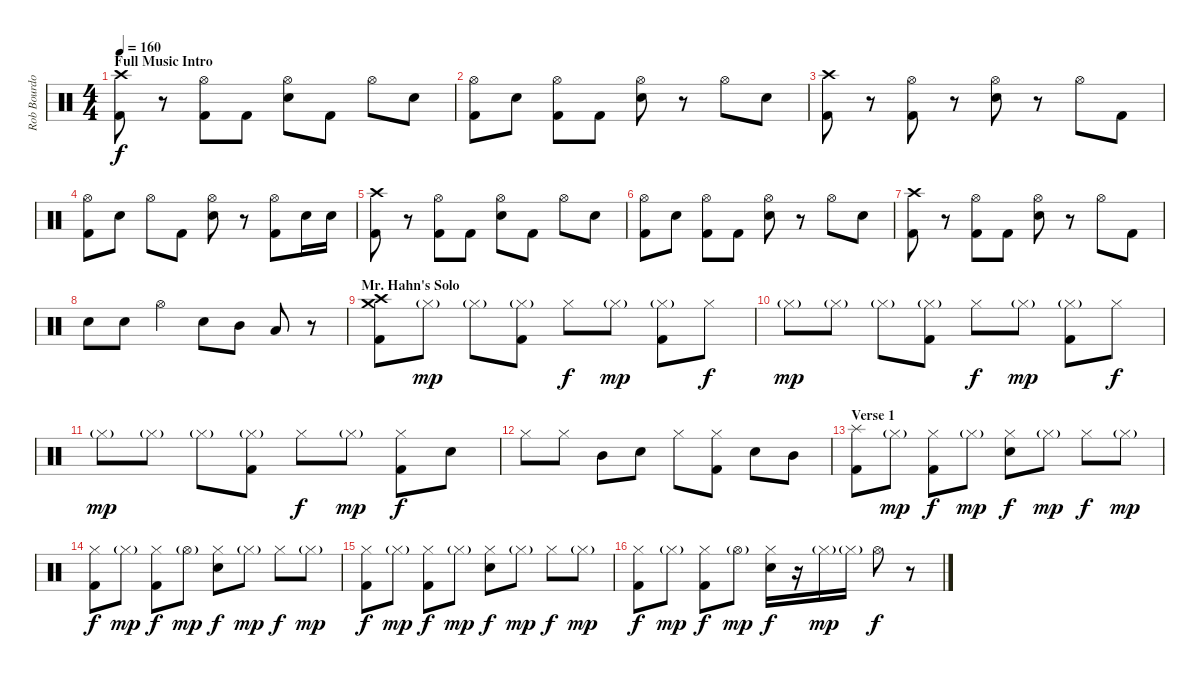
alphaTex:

\track ("Rob Bourdon (Drums)" "Rob Bourdo") {instrument percussion}
\staff {score}
\articulation defaults
\ts (4 4)
\section ("" "Full Music Intro")
\tempo 160
\clef neutral
\ks c
("Crash high (hit)" "Kick (hit) 2").8{dy f} r.8 ("Hi-Hat (open)" "Kick (hit) 2").8 "Kick (hit) 2".8 ("Hi-Hat (open)" "Electric Snare (hit)").8 "Kick (hit) 2".8 "Hi-Hat (open)".8 "Electric Snare (hit)".8 |
("Hi-Hat (open)" "Kick (hit) 2").8 "Electric Snare (hit)".8 ("Hi-Hat (open)" "Kick (hit) 2").8 "Kick (hit) 2".8 ("Hi-Hat (open)" "Electric Snare (hit)").8 r.8 "Hi-Hat (open)".8 "Electric Snare (hit)".8 |
("Crash high (hit)" "Kick (hit) 2").8 r.8 ("Hi-Hat (open)" "Kick (hit) 2").8 r.8 ("Hi-Hat (open)" "Electric Snare (hit)").8 r.8 "Hi-Hat (open)".8 "Kick (hit) 2".8 |
("Hi-Hat (open)" "Kick (hit) 2").8 "Electric Snare (hit)".8 "Hi-Hat (open)".8 "Kick (hit) 2".8 ("Hi-Hat (open)" "Electric Snare (hit)").8 r.8 ("Hi-Hat (open)" "Kick (hit) 2").8 "Electric Snare (hit)".16 "Electric Snare (hit)".16 |
("Crash high (hit)" "Kick (hit) 2").8 r.8 ("Hi-Hat (open)" "Kick (hit) 2").8 "Kick (hit) 2".8 ("Hi-Hat (open)" "Electric Snare (hit)").8 "Kick (hit) 2".8 "Hi-Hat (open)".8 "Electric Snare (hit)".8 |
("Hi-Hat (open)" "Kick (hit) 2").8 "Electric Snare (hit)".8 ("Hi-Hat (open)" "Kick (hit) 2").8 "Kick (hit) 2".8 ("Hi-Hat (open)" "Electric Snare (hit)").8 r.8 "Hi-Hat (open)".8 "Electric Snare (hit)".8 |
("Crash high (hit)" "Kick (hit) 2").8 r.8 ("Hi-Hat (open)" "Kick (hit) 2").8 "Kick (hit) 2".8 ("Hi-Hat (open)" "Electric Snare (hit)").8 r.8 "Hi-Hat (open)".8 "Kick (hit) 2".8 |
"Electric Snare (hit)".8 "Electric Snare (hit)".8 "Hi-Hat (open)".4 "Electric Snare (hit)".8 "Mid Tom (hit)".8 "Low Tom (hit)".8 r.8 |
\section ("" "Mr. Hahn's Solo")
("Crash high (hit)" "Crash medium (hit)" "Kick (hit) 2").8 "Hi-Hat (closed)"{g}.8{dy mp} "Hi-Hat (closed)"{g}.8 ("Hi-Hat (closed)"{g} "Kick (hit) 2").8 "Hi-Hat (closed)".8{dy f} "Hi-Hat (closed)"{g}.8{dy mp} ("Hi-Hat (closed)"{g} "Kick (hit) 2").8 "Hi-Hat (closed)".8{dy f} |
"Hi-Hat (closed)"{g}.8{dy mp} "Hi-Hat (closed)"{g}.8 "Hi-Hat (closed)"{g}.8 ("Hi-Hat (closed)"{g} "Kick (hit) 2").8 "Hi-Hat (closed)".8{dy f} "Hi-Hat (closed)"{g}.8{dy mp} ("Hi-Hat (closed)"{g} "Kick (hit) 2").8 "Hi-Hat (closed)".8{dy f} |
"Hi-Hat (closed)"{g}.8{dy mp} "Hi-Hat (closed)"{g}.8 "Hi-Hat (closed)"{g}.8 ("Hi-Hat (closed)"{g} "Kick (hit) 2").8 "Hi-Hat (closed)".8{dy f} "Hi-Hat (closed)"{g}.8{dy mp} ("Hi-Hat (closed)" "Kick (hit) 2").8{dy f} "Electric Snare (hit)".8 |
"Hi-Hat (closed)".8 "Hi-Hat (closed)".8 "Mid Tom (hit)".8 "Electric Snare (hit)".8 "Hi-Hat (closed)".8 ("Hi-Hat (closed)" "Kick (hit) 2").8 "Electric Snare (hit)".8 "Mid Tom (hit)".8 |
\section ("" "Verse 1")
("Splash (hit)" "Kick (hit) 2").8 "Hi-Hat (closed)"{g}.8{dy mp} ("Hi-Hat (closed)" "Kick (hit) 2").8{dy f} "Hi-Hat (closed)"{g}.8{dy mp} ("Hi-Hat (closed)" "Electric Snare (hit)").8{dy f} "Hi-Hat (closed)"{g}.8{dy mp} "Hi-Hat (closed)".8{dy f} "Hi-Hat (closed)"{g}.8{dy mp} |
("Hi-Hat (closed)" "Kick (hit) 2").8{dy f} "Hi-Hat (closed)"{g}.8{dy mp} ("Hi-Hat (closed)" "Kick (hit) 2").8{dy f} "Hi-Hat (open)"{g}.8{dy mp} ("Hi-Hat (closed)" "Electric Snare (hit)").8{dy f} "Hi-Hat (closed)"{g}.8{dy mp} "Hi-Hat (closed)".8{dy f} "Hi-Hat (closed)"{g}.8{dy mp} |
("Hi-Hat (closed)" "Kick (hit) 2").8{dy f} "Hi-Hat (closed)"{g}.8{dy mp} ("Hi-Hat (closed)" "Kick (hit) 2").8{dy f} "Hi-Hat (closed)"{g}.8{dy mp} ("Hi-Hat (closed)" "Electric Snare (hit)").8{dy f} "Hi-Hat (closed)"{g}.8{dy mp} "Hi-Hat (closed)".8{dy f} "Hi-Hat (closed)"{g}.8{dy mp} |
("Hi-Hat (closed)" "Kick (hit) 2").8{dy f} "Hi-Hat (closed)"{g}.8{dy mp} ("Hi-Hat (closed)" "Kick (hit) 2").8{dy f} "Hi-Hat (open)"{g}.8{dy mp} ("Hi-Hat (closed)" "Electric Snare (hit)").16{dy f} r.16 "Hi-Hat (closed)"{g}.16{dy mp} "Hi-Hat (closed)"{g}.16 "Hi-Hat (open)".8{dy f} r.8
